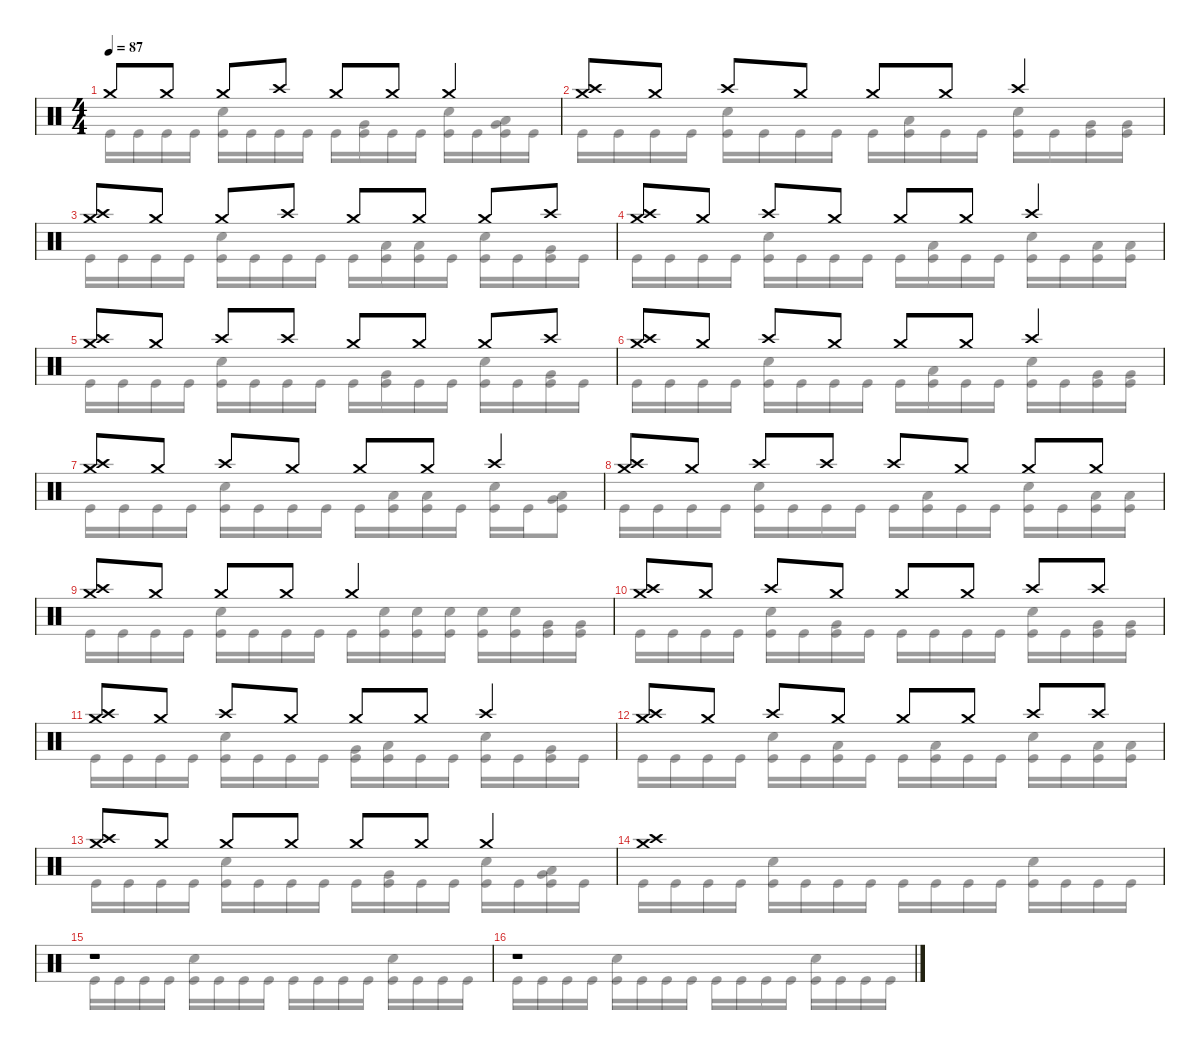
\defaultSystemsLayout 4
\hideDynamics
\bracketExtendMode nobrackets
\singleTrackTrackNamePolicy hidden
\multiTrackTrackNamePolicy hidden
\firstSystemTrackNameMode fullname
\otherSystemsTrackNameOrientation horizontal
\track ("Drums" "drm.") {instrument percussion}
\staff {score}
\articulation defaults
\voice
\ts (4 4)
\tempo 87
\clef neutral
\ks c "Crash medium (hit)".8{dy f beam Up} "Crash medium (hit)".8{beam Up} "Crash medium (hit)".8{dy mp beam Up} "Crash high (hit)".8{dy f beam Up} "Crash medium (hit)".8{dy mp beam Up} "Crash medium (hit)".8{dy f beam Up} "Crash medium (hit)".4{dy mp beam Up}
|
("Crash medium (hit)" "Crash high (hit)").8{dy f beam Up} "Crash medium (hit)".8{beam Up} "Crash high (hit)".8{dy mp beam Up} "Crash medium (hit)".8{dy f beam Up} "Crash medium (hit)".8{dy mp beam Up} "Crash medium (hit)".8{dy f beam Up} "Crash high (hit)".4{dy mp beam Up} |
("Crash medium (hit)" "Crash high (hit)").8{dy f beam Up} "Crash medium (hit)".8{beam Up} "Crash medium (hit)".8{dy mp beam Up} "Crash high (hit)".8{dy f beam Up} "Crash medium (hit)".8{dy mp beam Up} "Crash medium (hit)".8{dy f beam Up} "Crash medium (hit)".8{dy mp beam Up} "Crash high (hit)".8{dy f beam Up} |
("Crash medium (hit)" "Crash high (hit)").8{beam Up} "Crash medium (hit)".8{beam Up} "Crash high (hit)".8{dy mp beam Up} "Crash medium (hit)".8{dy f beam Up} "Crash medium (hit)".8{dy mp beam Up} "Crash medium (hit)".8{dy f beam Up} "Crash high (hit)".4{dy mp beam Up} |
("Crash medium (hit)" "Crash high (hit)").8{dy f beam Up} "Crash medium (hit)".8{beam Up} "Crash high (hit)".8{dy mp beam Up} "Crash high (hit)".8{dy f beam Up} "Crash medium (hit)".8{dy mp beam Up} "Crash medium (hit)".8{dy f beam Up} "Crash medium (hit)".8{dy mp beam Up} "Crash high (hit)".8{dy f beam Up} |
("Crash medium (hit)" "Crash high (hit)").8{beam Up} "Crash medium (hit)".8{beam Up} "Crash high (hit)".8{dy mp beam Up} "Crash medium (hit)".8{dy f beam Up} "Crash medium (hit)".8{dy mp beam Up} "Crash medium (hit)".8{dy f beam Up} "Crash high (hit)".4{dy mp beam Up} |
("Crash medium (hit)" "Crash high (hit)").8{dy f beam Up} "Crash medium (hit)".8{beam Up} "Crash high (hit)".8{dy mp beam Up} "Crash medium (hit)".8{dy f beam Up} "Crash medium (hit)".8{dy mp beam Up} "Crash medium (hit)".8{dy f beam Up} "Crash high (hit)".4{dy mp beam Up} |
("Crash medium (hit)" "Crash high (hit)").8{dy f beam Up} "Crash medium (hit)".8{beam Up} "Crash high (hit)".8{dy mp beam Up} "Crash high (hit)".8{dy f beam Up} "Crash high (hit)".8{dy mp beam Up} "Crash medium (hit)".8{dy f beam Up} "Crash medium (hit)".8{dy mp beam Up} "Crash medium (hit)".8{beam Up} |
("Crash medium (hit)" "Crash high (hit)").8{dy f beam Up} "Crash medium (hit)".8{beam Up} "Crash medium (hit)".8{dy mp beam Up} "Crash medium (hit)".8{dy f beam Up} "Crash medium (hit)".2{beam Up} |
("Crash medium (hit)" "Crash high (hit)").8{beam Up} "Crash medium (hit)".8{beam Up} "Crash high (hit)".8{dy mp beam Up} "Crash medium (hit)".8{dy f beam Up} "Crash medium (hit)".8{dy mp beam Up} "Crash medium (hit)".8{dy f beam Up} "Crash high (hit)".8{dy mp beam Up} "Crash high (hit)".8{beam Up} |
("Crash medium (hit)" "Crash high (hit)").8{dy f beam Up} "Crash medium (hit)".8{beam Up} "Crash high (hit)".8{dy mp beam Up} "Crash medium (hit)".8{dy f beam Up} "Crash medium (hit)".8{dy mp beam Up} "Crash medium (hit)".8{dy f beam Up} "Crash high (hit)".4{dy mp beam Up} |
("Crash medium (hit)" "Crash high (hit)").8{dy f beam Up} "Crash medium (hit)".8{beam Up} "Crash high (hit)".8{dy mp beam Up} "Crash medium (hit)".8{dy f beam Up} "Crash medium (hit)".8{dy mp beam Up} "Crash medium (hit)".8{dy f beam Up} "Crash high (hit)".8{dy mp beam Up} "Crash high (hit)".8{beam Up} |
("Crash medium (hit)" "Crash high (hit)").8{dy f beam Up} "Crash medium (hit)".8{beam Up} "Crash medium (hit)".8{dy mp beam Up} "Crash medium (hit)".8{dy f beam Up} "Crash medium (hit)".8{dy mp beam Up} "Crash medium (hit)".8{dy f beam Up} "Crash medium (hit)".4{dy mp beam Up} |
("Crash medium (hit)" "Crash high (hit)").1{dy f beam Up} |
r.1{beam Up} |
r.1{beam Up}
\voice
\clef neutral
\ottava regular
\simile none
\ks c "Kick (hit)".16{dy f beam Down} "Kick (hit)".16{beam Down} "Kick (hit)".16{beam Down} "Kick (hit)".16{beam Down}
("Snare (hit) 2" "Kick (hit)").16{beam Down} "Kick (hit)".16{beam Down} "Kick (hit)".16{beam Down} "Kick (hit)".16{beam Down} "Kick (hit)".16{beam Down} ("Very Low Tom (hit)" "Kick (hit)").16{beam Down} "Kick (hit)".16{beam Down} "Kick (hit)".16{beam Down} ("Snare (hit) 2" "Kick (hit)").16{beam Down} "Kick (hit)".16{beam Down} ("Very Low Tom (hit)" "Low Floor Tom (hit)" "Kick (hit)").16{beam Down} "Kick (hit)".16{beam Down} |
"Kick (hit)".16{beam Down} "Kick (hit)".16{beam Down} "Kick (hit)".16{beam Down} "Kick (hit)".16{beam Down} ("Snare (hit) 2" "Kick (hit)").16{beam Down} "Kick (hit)".16{beam Down} "Kick (hit)".16{beam Down} "Kick (hit)".16{beam Down} "Kick (hit)".16{beam Down} ("Low Tom (hit)" "Kick (hit)").16{beam Down} "Kick (hit)".16{beam Down} "Kick (hit)".16{beam Down} ("Snare (hit) 2" "Kick (hit)").16{beam Down} "Kick (hit)".16{beam Down} ("Very Low Tom (hit)" "Kick (hit)").16{beam Down} ("Very Low Tom (hit)" "Kick (hit)").16{beam Down} |
"Kick (hit)".16{beam Down} "Kick (hit)".16{beam Down} "Kick (hit)".16{beam Down} "Kick (hit)".16{beam Down} ("Snare (hit) 2" "Kick (hit)").16{beam Down} "Kick (hit)".16{beam Down} "Kick (hit)".16{beam Down} "Kick (hit)".16{beam Down} "Kick (hit)".16{beam Down} ("Low Tom (hit)" "Kick (hit)").16{beam Down} ("Low Tom (hit)" "Kick (hit)").16{beam Down} "Kick (hit)".16{beam Down} ("Snare (hit) 2" "Kick (hit)").16{beam Down} "Kick (hit)".16{beam Down} ("Very Low Tom (hit)" "Kick (hit)").16{beam Down} "Kick (hit)".16{beam Down} |
"Kick (hit)".16{beam Down} "Kick (hit)".16{beam Down} "Kick (hit)".16{beam Down} "Kick (hit)".16{beam Down} ("Snare (hit) 2" "Kick (hit)").16{beam Down} "Kick (hit)".16{beam Down} "Kick (hit)".16{beam Down} "Kick (hit)".16{beam Down} "Kick (hit)".16{beam Down} ("Low Floor Tom (hit)" "Kick (hit)").16{beam Down} "Kick (hit)".16{beam Down} "Kick (hit)".16{beam Down} ("Snare (hit) 2" "Kick (hit)").16{beam Down} "Kick (hit)".16{beam Down} ("Low Floor Tom (hit)" "Kick (hit)").16{beam Down} ("Low Floor Tom (hit)" "Kick (hit)").16{beam Down} |
"Kick (hit)".16{beam Down} "Kick (hit)".16{beam Down} "Kick (hit)".16{beam Down} "Kick (hit)".16{beam Down} ("Snare (hit) 2" "Kick (hit)").16{beam Down} "Kick (hit)".16{beam Down} "Kick (hit)".16{beam Down} "Kick (hit)".16{beam Down} "Kick (hit)".16{beam Down} ("Very Low Tom (hit)" "Kick (hit)").16{beam Down} "Kick (hit)".16{beam Down} "Kick (hit)".16{beam Down} ("Snare (hit) 2" "Kick (hit)").16{beam Down} "Kick (hit)".16{beam Down} ("Very Low Tom (hit)" "Kick (hit)").16{beam Down} "Kick (hit)".16{beam Down} |
"Kick (hit)".16{beam Down} "Kick (hit)".16{beam Down} "Kick (hit)".16{beam Down} "Kick (hit)".16{beam Down} ("Snare (hit) 2" "Kick (hit)").16{beam Down} "Kick (hit)".16{beam Down} "Kick (hit)".16{beam Down} "Kick (hit)".16{beam Down} "Kick (hit)".16{beam Down} ("Low Tom (hit)" "Kick (hit)").16{beam Down} "Kick (hit)".16{beam Down} "Kick (hit)".16{beam Down} ("Snare (hit) 2" "Kick (hit)").16{beam Down} "Kick (hit)".16{beam Down} ("Very Low Tom (hit)" "Kick (hit)").16{beam Down} ("Very Low Tom (hit)" "Kick (hit)").16{beam Down} |
"Kick (hit)".16{beam Down} "Kick (hit)".16{beam Down} "Kick (hit)".16{beam Down} "Kick (hit)".16{beam Down} ("Snare (hit) 2" "Kick (hit)").16{beam Down} "Kick (hit)".16{beam Down} "Kick (hit)".16{beam Down} "Kick (hit)".16{beam Down} "Kick (hit)".16{beam Down} ("Low Tom (hit)" "Kick (hit)").16{beam Down} ("Low Tom (hit)" "Kick (hit)").16{beam Down} "Kick (hit)".16{beam Down} ("Snare (hit) 2" "Kick (hit)").16{beam Down} "Kick (hit)".16{beam Down} ("Low Floor Tom (hit)" "Very Low Tom (hit)" "Kick (hit)").8{beam Down} |
"Kick (hit)".16{beam Down} "Kick (hit)".16{beam Down} "Kick (hit)".16{beam Down} "Kick (hit)".16{beam Down} ("Snare (hit) 2" "Kick (hit)").16{beam Down} "Kick (hit)".16{beam Down} "Kick (hit)".16{beam Down} "Kick (hit)".16{beam Down} "Kick (hit)".16{beam Down} ("Low Floor Tom (hit)" "Kick (hit)").16{beam Down} "Kick (hit)".16{beam Down} "Kick (hit)".16{beam Down} ("Snare (hit) 2" "Kick (hit)").16{beam Down} "Kick (hit)".16{beam Down} ("Low Floor Tom (hit)" "Kick (hit)").16{beam Down} ("Low Floor Tom (hit)" "Kick (hit)").16{beam Down} |
"Kick (hit)".16{beam Down} "Kick (hit)".16{beam Down} "Kick (hit)".16{beam Down} "Kick (hit)".16{beam Down} ("Snare (hit) 2" "Kick (hit)").16{beam Down} "Kick (hit)".16{beam Down} "Kick (hit)".16{beam Down} "Kick (hit)".16{beam Down} "Kick (hit)".16{beam Down} ("Snare (hit) 2" "Kick (hit)").16{beam Down} ("Snare (hit) 2" "Kick (hit)").16{beam Down} ("Snare (hit) 2" "Kick (hit)").16{beam Down} ("Snare (hit) 2" "Kick (hit)").16{beam Down} ("Snare (hit) 2" "Kick (hit)").16{beam Down} ("Very Low Tom (hit)" "Kick (hit)").16{beam Down} ("Very Low Tom (hit)" "Kick (hit)").16{beam Down} |
"Kick (hit)".16{beam Down} "Kick (hit)".16{beam Down} "Kick (hit)".16{beam Down} "Kick (hit)".16{beam Down} ("Snare (hit) 2" "Kick (hit)").16{beam Down} "Kick (hit)".16{beam Down} ("Very Low Tom (hit)" "Kick (hit)").16{beam Down} "Kick (hit)".16{beam Down} "Kick (hit)".16{beam Down} "Kick (hit)".16{beam Down} "Kick (hit)".16{beam Down} "Kick (hit)".16{beam Down} ("Snare (hit) 2" "Kick (hit)").16{beam Down} "Kick (hit)".16{beam Down} ("Very Low Tom (hit)" "Kick (hit)").16{beam Down} ("Very Low Tom (hit)" "Kick (hit)").16{beam Down} |
"Kick (hit)".16{beam Down} "Kick (hit)".16{beam Down} "Kick (hit)".16{beam Down} "Kick (hit)".16{beam Down} ("Snare (hit) 2" "Kick (hit)").16{beam Down} "Kick (hit)".16{beam Down} "Kick (hit)".16{beam Down} "Kick (hit)".16{beam Down} ("Very Low Tom (hit)" "Kick (hit)").16{beam Down} ("Low Tom (hit)" "Kick (hit)").16{beam Down} "Kick (hit)".16{beam Down} "Kick (hit)".16{beam Down} ("Snare (hit) 2" "Kick (hit)").16{beam Down} "Kick (hit)".16{beam Down} ("Very Low Tom (hit)" "Kick (hit)").16{beam Down} "Kick (hit)".16{beam Down} |
"Kick (hit)".16{beam Down} "Kick (hit)".16{beam Down} "Kick (hit)".16{beam Down} "Kick (hit)".16{beam Down} ("Snare (hit) 2" "Kick (hit)").16{beam Down} "Kick (hit)".16{beam Down} ("Low Tom (hit)" "Kick (hit)").16{beam Down} "Kick (hit)".16{beam Down} "Kick (hit)".16{beam Down} ("Low Floor Tom (hit)" "Kick (hit)").16{beam Down} "Kick (hit)".16{beam Down} "Kick (hit)".16{beam Down} ("Snare (hit) 2" "Kick (hit)").16{beam Down} "Kick (hit)".16{beam Down} ("Low Floor Tom (hit)" "Kick (hit)").16{beam Down} ("Low Floor Tom (hit)" "Kick (hit)").16{beam Down} |
"Kick (hit)".16{beam Down} "Kick (hit)".16{beam Down} "Kick (hit)".16{beam Down} "Kick (hit)".16{beam Down} ("Snare (hit) 2" "Kick (hit)").16{beam Down} "Kick (hit)".16{beam Down} "Kick (hit)".16{beam Down} "Kick (hit)".16{beam Down} "Kick (hit)".16{beam Down} ("Very Low Tom (hit)" "Kick (hit)").16{beam Down} "Kick (hit)".16{beam Down} "Kick (hit)".16{beam Down} ("Snare (hit) 2" "Kick (hit)").16{beam Down} "Kick (hit)".16{beam Down} ("Very Low Tom (hit)" "Low Floor Tom (hit)" "Kick (hit)").16{beam Down} "Kick (hit)".16{beam Down} |
"Kick (hit)".16{beam Down} "Kick (hit)".16{beam Down} "Kick (hit)".16{beam Down} "Kick (hit)".16{beam Down} ("Snare (hit) 2" "Kick (hit)").16{beam Down} "Kick (hit)".16{beam Down} "Kick (hit)".16{beam Down} "Kick (hit)".16{beam Down} "Kick (hit)".16{beam Down} "Kick (hit)".16{beam Down} "Kick (hit)".16{beam Down} "Kick (hit)".16{beam Down} ("Snare (hit) 2" "Kick (hit)").16{beam Down} "Kick (hit)".16{beam Down} "Kick (hit)".16{beam Down} "Kick (hit)".16{beam Down} |
"Kick (hit)".16{beam Down} "Kick (hit)".16{beam Down} "Kick (hit)".16{beam Down} "Kick (hit)".16{beam Down} ("Snare (hit) 2" "Kick (hit)").16{beam Down} "Kick (hit)".16{beam Down} "Kick (hit)".16{beam Down} "Kick (hit)".16{beam Down} "Kick (hit)".16{beam Down} "Kick (hit)".16{beam Down} "Kick (hit)".16{beam Down} "Kick (hit)".16{beam Down} ("Snare (hit) 2" "Kick (hit)").16{beam Down} "Kick (hit)".16{beam Down} "Kick (hit)".16{beam Down} "Kick (hit)".16{beam Down} |
"Kick (hit)".16{beam Down} "Kick (hit)".16{beam Down} "Kick (hit)".16{beam Down} "Kick (hit)".16{beam Down} ("Snare (hit) 2" "Kick (hit)").16{beam Down} "Kick (hit)".16{beam Down} "Kick (hit)".16{beam Down} "Kick (hit)".16{beam Down} "Kick (hit)".16{beam Down} "Kick (hit)".16{beam Down} "Kick (hit)".16{beam Down} "Kick (hit)".16{beam Down} ("Snare (hit) 2" "Kick (hit)").16{beam Down} "Kick (hit)".16{beam Down} "Kick (hit)".16{beam Down} "Kick (hit)".16{beam Down}
